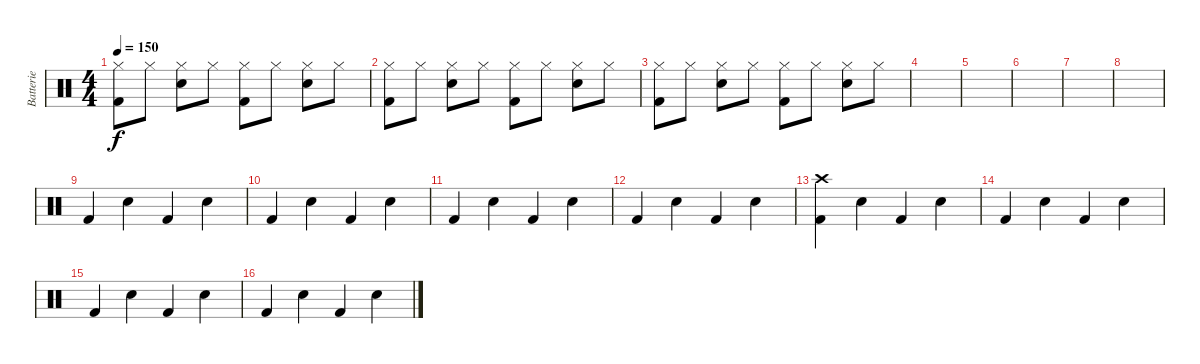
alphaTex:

\track ("Batterie" "Batterie") {instrument percussion}
\staff {score}
\articulation defaults
\ts (4 4)
\tempo 150
\clef neutral
\ks c
("Hi-Hat (closed)" "Kick (hit) 2").8{dy f} "Hi-Hat (closed)".8 ("Hi-Hat (closed)" "Snare (hit) 2").8 "Hi-Hat (closed)".8 ("Hi-Hat (closed)" "Kick (hit) 2").8 "Hi-Hat (closed)".8 ("Hi-Hat (closed)" "Snare (hit) 2").8 "Hi-Hat (closed)".8 |
("Hi-Hat (closed)" "Kick (hit) 2").8 "Hi-Hat (closed)".8 ("Hi-Hat (closed)" "Snare (hit) 2").8 "Hi-Hat (closed)".8 ("Hi-Hat (closed)" "Kick (hit) 2").8 "Hi-Hat (closed)".8 ("Hi-Hat (closed)" "Snare (hit) 2").8 "Hi-Hat (closed)".8 |
("Hi-Hat (closed)" "Kick (hit) 2").8 "Hi-Hat (closed)".8 ("Hi-Hat (closed)" "Snare (hit) 2").8 "Hi-Hat (closed)".8 ("Hi-Hat (closed)" "Kick (hit) 2").8 "Hi-Hat (closed)".8 ("Hi-Hat (closed)" "Snare (hit) 2").8 "Hi-Hat (closed)".8 |
|
|
|
|
|
"Kick (hit) 2".4 "Snare (hit) 2".4 "Kick (hit) 2".4 "Snare (hit) 2".4 |
"Kick (hit) 2".4 "Snare (hit) 2".4 "Kick (hit) 2".4 "Snare (hit) 2".4 |
"Kick (hit) 2".4 "Snare (hit) 2".4 "Kick (hit) 2".4 "Snare (hit) 2".4 |
"Kick (hit) 2".4 "Snare (hit) 2".4 "Kick (hit) 2".4 "Snare (hit) 2".4 |
("Crash high (hit)" "Kick (hit) 2").4 "Snare (hit) 2".4 "Kick (hit) 2".4 "Snare (hit) 2".4 |
"Kick (hit) 2".4 "Snare (hit) 2".4 "Kick (hit) 2".4 "Snare (hit) 2".4 |
"Kick (hit) 2".4 "Snare (hit) 2".4 "Kick (hit) 2".4 "Snare (hit) 2".4 |
"Kick (hit) 2".4 "Snare (hit) 2".4 "Kick (hit) 2".4 "Snare (hit) 2".4
